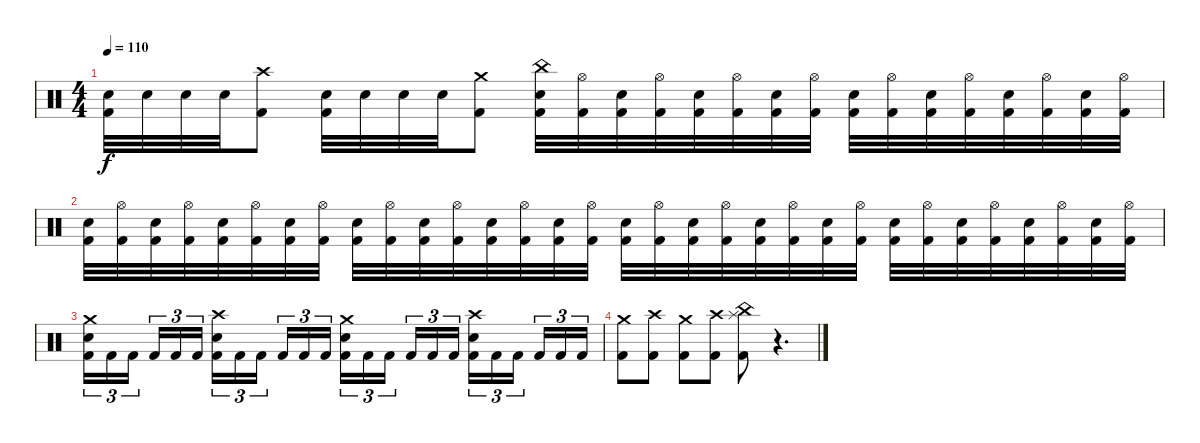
\track "" {instrument percussion}
\staff {score}
\articulation defaults
\ts (4 4)
\tempo 110
\clef neutral
\ks c
("Electric Snare (hit)" "Kick (hit) 2").32{dy f} "Electric Snare (hit)".32 "Electric Snare (hit)".32 "Electric Snare (hit)".32 ("Crash high (hit)" "Kick (hit) 2").8 ("Electric Snare (hit)" "Kick (hit) 2").32 "Electric Snare (hit)".32 "Electric Snare (hit)".32 "Electric Snare (hit)".32 ("Crash medium (hit)" "Kick (hit) 2").8 ("China (hit)" "Electric Snare (hit)" "Kick (hit) 2").32 ("Hi-Hat (open)" "Kick (hit) 2").32 ("Electric Snare (hit)" "Kick (hit) 2").32 ("Hi-Hat (open)" "Kick (hit) 2").32 ("Electric Snare (hit)" "Kick (hit) 2").32 ("Hi-Hat (open)" "Kick (hit) 2").32 ("Electric Snare (hit)" "Kick (hit) 2").32 ("Hi-Hat (open)" "Kick (hit) 2").32 ("Electric Snare (hit)" "Kick (hit) 2").32 ("Hi-Hat (open)" "Kick (hit) 2").32 ("Electric Snare (hit)" "Kick (hit) 2").32 ("Hi-Hat (open)" "Kick (hit) 2").32 ("Electric Snare (hit)" "Kick (hit) 2").32 ("Hi-Hat (open)" "Kick (hit) 2").32 ("Electric Snare (hit)" "Kick (hit) 2").32 ("Hi-Hat (open)" "Kick (hit) 2").32 |
("Electric Snare (hit)" "Kick (hit) 2").32 ("Hi-Hat (open)" "Kick (hit) 2").32 ("Electric Snare (hit)" "Kick (hit) 2").32 ("Hi-Hat (open)" "Kick (hit) 2").32 ("Electric Snare (hit)" "Kick (hit) 2").32 ("Hi-Hat (open)" "Kick (hit) 2").32 ("Electric Snare (hit)" "Kick (hit) 2").32 ("Hi-Hat (open)" "Kick (hit) 2").32 ("Electric Snare (hit)" "Kick (hit) 2").32 ("Hi-Hat (open)" "Kick (hit) 2").32 ("Electric Snare (hit)" "Kick (hit) 2").32 ("Hi-Hat (open)" "Kick (hit) 2").32 ("Electric Snare (hit)" "Kick (hit) 2").32 ("Hi-Hat (open)" "Kick (hit) 2").32 ("Electric Snare (hit)" "Kick (hit) 2").32 ("Hi-Hat (open)" "Kick (hit) 2").32 ("Electric Snare (hit)" "Kick (hit) 2").32 ("Hi-Hat (open)" "Kick (hit) 2").32 ("Electric Snare (hit)" "Kick (hit) 2").32 ("Hi-Hat (open)" "Kick (hit) 2").32 ("Electric Snare (hit)" "Kick (hit) 2").32 ("Hi-Hat (open)" "Kick (hit) 2").32 ("Electric Snare (hit)" "Kick (hit) 2").32 ("Hi-Hat (open)" "Kick (hit) 2").32 ("Electric Snare (hit)" "Kick (hit) 2").32 ("Hi-Hat (open)" "Kick (hit) 2").32 ("Electric Snare (hit)" "Kick (hit) 2").32 ("Hi-Hat (open)" "Kick (hit) 2").32 ("Electric Snare (hit)" "Kick (hit) 2").32 ("Hi-Hat (open)" "Kick (hit) 2").32 ("Electric Snare (hit)" "Kick (hit) 2").32 ("Hi-Hat (open)" "Kick (hit) 2").32 |
("Crash medium (hit)" "Electric Snare (hit)" "Kick (hit) 2").16{tu (3 2)} "Kick (hit) 2".16{tu (3 2)} "Kick (hit) 2".16{tu (3 2) beam splitsecondary} "Kick (hit) 2".16{tu (3 2)} "Kick (hit) 2".16{tu (3 2)} "Kick (hit) 2".16{tu (3 2)} ("Crash high (hit)" "Electric Snare (hit)" "Kick (hit) 2").16{tu (3 2)} "Kick (hit) 2".16{tu (3 2)} "Kick (hit) 2".16{tu (3 2) beam splitsecondary} "Kick (hit) 2".16{tu (3 2)} "Kick (hit) 2".16{tu (3 2)} "Kick (hit) 2".16{tu (3 2)} ("Crash medium (hit)" "Electric Snare (hit)" "Kick (hit) 2").16{tu (3 2)} "Kick (hit) 2".16{tu (3 2)} "Kick (hit) 2".16{tu (3 2) beam splitsecondary} "Kick (hit) 2".16{tu (3 2)} "Kick (hit) 2".16{tu (3 2)} "Kick (hit) 2".16{tu (3 2)} ("Crash high (hit)" "Electric Snare (hit)" "Kick (hit) 2").16{tu (3 2)} "Kick (hit) 2".16{tu (3 2)} "Kick (hit) 2".16{tu (3 2) beam splitsecondary} "Kick (hit) 2".16{tu (3 2)} "Kick (hit) 2".16{tu (3 2)} "Kick (hit) 2".16{tu (3 2)} |
("Crash medium (hit)" "Kick (hit) 2").8 ("Crash high (hit)" "Kick (hit) 2").8 ("Crash medium (hit)" "Kick (hit) 2").8 ("Crash high (hit)" "Kick (hit) 2").8 ("China (hit)" "Splash (hit)" "Kick (hit) 2").8 r.4{d}
